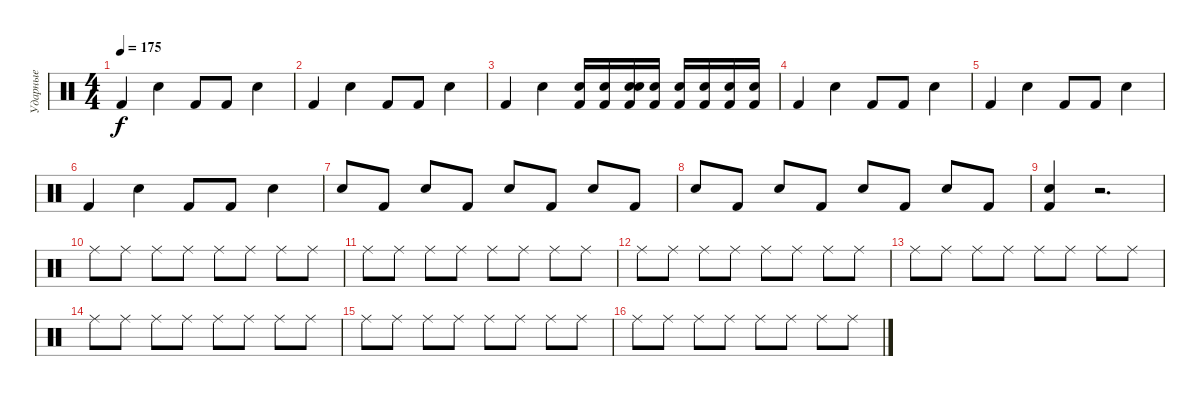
\track ("Ударные" "Ударные") {instrument percussion}
\staff {score}
\articulation defaults
\ts (4 4)
\tempo 175
\clef neutral
\ks c "Kick (hit) 2".4{dy f} "Electric Snare (hit)".4 "Kick (hit) 2".8 "Kick (hit) 2".8 "Electric Snare (hit)".4
|
"Kick (hit) 2".4 "Electric Snare (hit)".4 "Kick (hit) 2".8 "Kick (hit) 2".8 "Electric Snare (hit)".4 |
"Kick (hit) 2".4 "Electric Snare (hit)".4 ("Electric Snare (hit)" "Kick (hit) 2").16 ("Electric Snare (hit)" "Kick (hit) 2").16 ("Snare (hit) 2" "Electric Snare (hit)" "Kick (hit) 2").16 ("Electric Snare (hit)" "Kick (hit) 2").16 ("Electric Snare (hit)" "Kick (hit) 2").16 ("Electric Snare (hit)" "Kick (hit) 2").16 ("Electric Snare (hit)" "Kick (hit) 2").16 ("Electric Snare (hit)" "Kick (hit) 2").16 |
"Kick (hit) 2".4 "Electric Snare (hit)".4 "Kick (hit) 2".8 "Kick (hit) 2".8 "Electric Snare (hit)".4 |
"Kick (hit) 2".4 "Electric Snare (hit)".4 "Kick (hit) 2".8 "Kick (hit) 2".8 "Electric Snare (hit)".4 |
"Kick (hit) 2".4 "Electric Snare (hit)".4 "Kick (hit) 2".8 "Kick (hit) 2".8 "Electric Snare (hit)".4 |
"Electric Snare (hit)".8 "Kick (hit) 2".8 "Electric Snare (hit)".8 "Kick (hit) 2".8 "Electric Snare (hit)".8 "Kick (hit) 2".8 "Electric Snare (hit)".8 "Kick (hit) 2".8 |
"Electric Snare (hit)".8 "Kick (hit) 2".8 "Electric Snare (hit)".8 "Kick (hit) 2".8 "Electric Snare (hit)".8 "Kick (hit) 2".8 "Electric Snare (hit)".8 "Kick (hit) 2".8 |
("Kick (hit) 2" "Electric Snare (hit)").4 r.2{d} |
"Ride (middle)".8 "Ride (middle)".8 "Ride (middle)".8 "Ride (middle)".8 "Ride (middle)".8 "Ride (middle)".8 "Ride (middle)".8 "Ride (middle)".8 |
"Ride (middle)".8 "Ride (middle)".8 "Ride (middle)".8 "Ride (middle)".8 "Ride (middle)".8 "Ride (middle)".8 "Ride (middle)".8 "Ride (middle)".8 |
"Ride (middle)".8 "Ride (middle)".8 "Ride (middle)".8 "Ride (middle)".8 "Ride (middle)".8 "Ride (middle)".8 "Ride (middle)".8 "Ride (middle)".8 |
"Ride (middle)".8 "Ride (middle)".8 "Ride (middle)".8 "Ride (middle)".8 "Ride (middle)".8 "Ride (middle)".8 "Ride (middle)".8 "Ride (middle)".8 |
"Ride (middle)".8 "Ride (middle)".8 "Ride (middle)".8 "Ride (middle)".8 "Ride (middle)".8 "Ride (middle)".8 "Ride (middle)".8 "Ride (middle)".8 |
"Ride (middle)".8 "Ride (middle)".8 "Ride (middle)".8 "Ride (middle)".8 "Ride (middle)".8 "Ride (middle)".8 "Ride (middle)".8 "Ride (middle)".8 |
"Ride (middle)".8 "Ride (middle)".8 "Ride (middle)".8 "Ride (middle)".8 "Ride (middle)".8 "Ride (middle)".8 "Ride (middle)".8 "Ride (middle)".8
